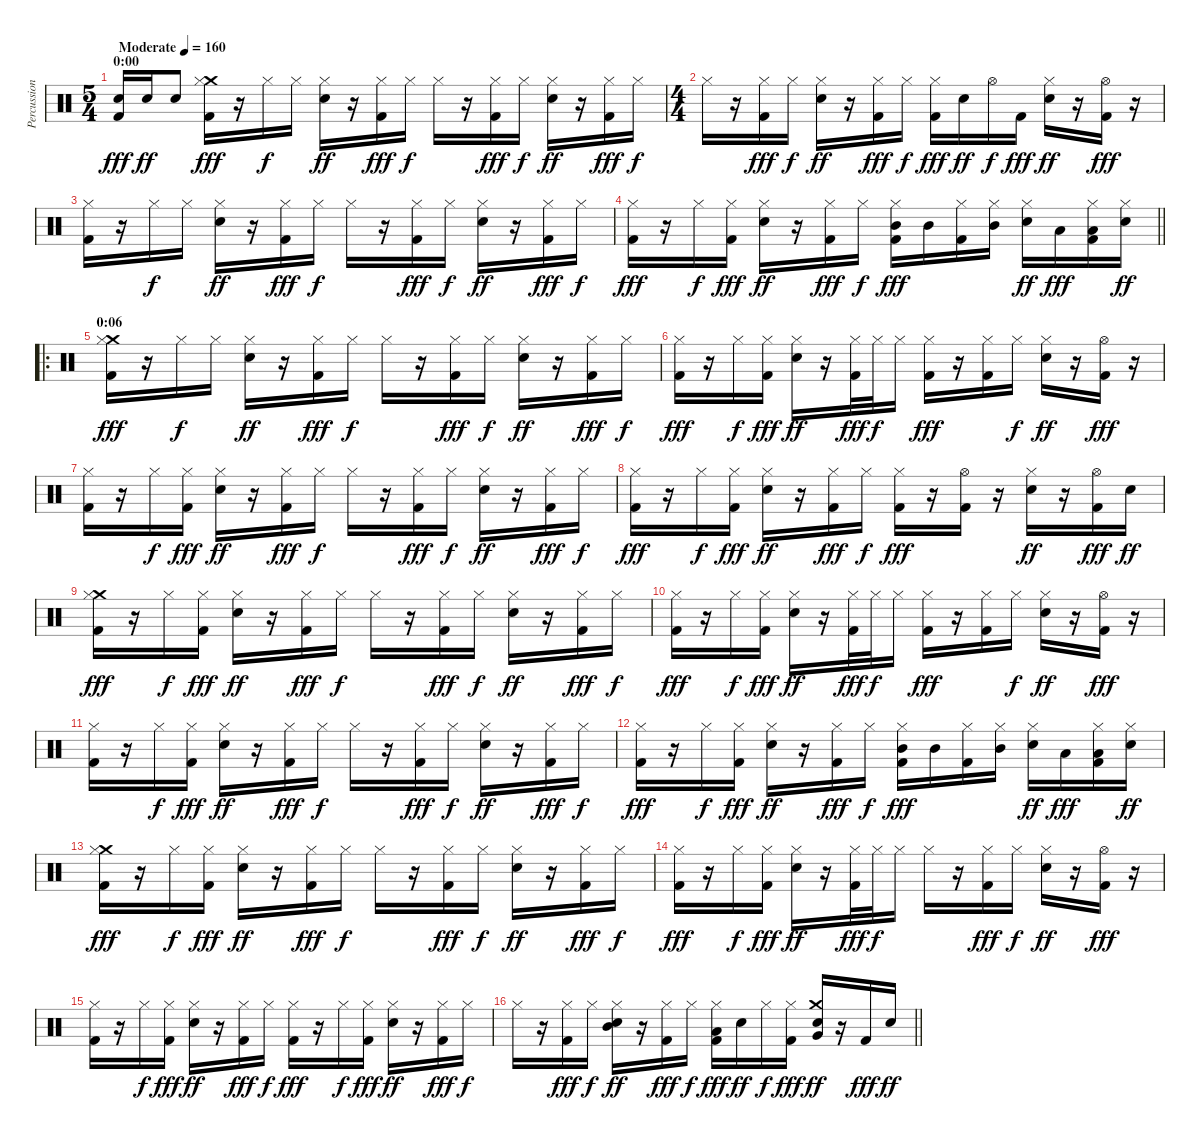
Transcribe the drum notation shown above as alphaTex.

\track ("Percussion" "Percussion") {instrument percussion}
\staff {score}
\articulation defaults
\ts (5 4)
\section ("" "0:00")
\tempo (160 "Moderate")
\clef neutral
\ks c
("Electric Snare (hit)" "Kick (hit) 2").16{dy fff} "Electric Snare (hit)".16{dy ff} "Electric Snare (hit)".8 ("Crash medium (hit)" "Hi-Hat (closed)" "Kick (hit) 2").16{dy fff} r.16 "Hi-Hat (closed)".16{dy f} "Hi-Hat (closed)".16 ("Hi-Hat (closed)" "Electric Snare (hit)").16{dy ff} r.16 ("Hi-Hat (closed)" "Kick (hit) 2").16{dy fff} "Hi-Hat (closed)".16{dy f} "Hi-Hat (closed)".16 r.16 ("Hi-Hat (closed)" "Kick (hit) 2").16{dy fff} "Hi-Hat (closed)".16{dy f} ("Hi-Hat (closed)" "Electric Snare (hit)").16{dy ff} r.16 ("Hi-Hat (closed)" "Kick (hit) 2").16{dy fff} "Hi-Hat (closed)".16{dy f} |
\ts (4 4)
"Hi-Hat (closed)".16 r.16 ("Hi-Hat (closed)" "Kick (hit) 2").16{dy fff} "Hi-Hat (closed)".16{dy f} ("Hi-Hat (closed)" "Electric Snare (hit)").16{dy ff} r.16 ("Hi-Hat (closed)" "Kick (hit) 2").16{dy fff} "Hi-Hat (closed)".16{dy f} ("Hi-Hat (closed)" "Kick (hit) 2").16{dy fff} "Electric Snare (hit)".16{dy ff} "Hi-Hat (open)".16{dy f} "Kick (hit) 2".16{dy fff} ("Hi-Hat (closed)" "Electric Snare (hit)").16{dy ff} r.16 ("Hi-Hat (open)" "Kick (hit) 2").16{dy fff} r.16 |
("Hi-Hat (closed)" "Kick (hit) 2").16 r.16 "Hi-Hat (closed)".16{dy f} "Hi-Hat (closed)".16 ("Hi-Hat (closed)" "Electric Snare (hit)").16{dy ff} r.16 ("Hi-Hat (closed)" "Kick (hit) 2").16{dy fff} "Hi-Hat (closed)".16{dy f} "Hi-Hat (closed)".16 r.16 ("Hi-Hat (closed)" "Kick (hit) 2").16{dy fff} "Hi-Hat (closed)".16{dy f} ("Hi-Hat (closed)" "Electric Snare (hit)").16{dy ff} r.16 ("Hi-Hat (closed)" "Kick (hit) 2").16{dy fff} "Hi-Hat (closed)".16{dy f} |
\barLineRight lightlight
("Hi-Hat (closed)" "Kick (hit) 2").16{dy fff} r.16 "Hi-Hat (closed)".16{dy f} ("Hi-Hat (closed)" "Kick (hit) 2").16{dy fff} ("Hi-Hat (closed)" "Electric Snare (hit)").16{dy ff} r.16 ("Hi-Hat (closed)" "Kick (hit) 2").16{dy fff} "Hi-Hat (closed)".16{dy f} ("Mid Tom (hit)" "Hi-Hat (closed)" "Kick (hit) 2").16{dy fff} "Mid Tom (hit)".16 ("Hi-Hat (closed)" "Kick (hit) 2").16 ("Mid Tom (hit)" "Hi-Hat (closed)").16 ("Hi-Hat (closed)" "Electric Snare (hit)").16{dy ff} "Low Tom (hit)".16{dy fff} ("Low Tom (hit)" "Hi-Hat (closed)" "Kick (hit) 2").16 ("Hi-Hat (closed)" "Electric Snare (hit)").16{dy ff} |
\ro
\section ("" "0:06")
("Crash medium (hit)" "Hi-Hat (closed)" "Kick (hit) 2").16{dy fff} r.16 "Hi-Hat (closed)".16{dy f} "Hi-Hat (closed)".16 ("Hi-Hat (closed)" "Electric Snare (hit)").16{dy ff} r.16 ("Hi-Hat (closed)" "Kick (hit) 2").16{dy fff} "Hi-Hat (closed)".16{dy f} "Hi-Hat (closed)".16 r.16 ("Hi-Hat (closed)" "Kick (hit) 2").16{dy fff} "Hi-Hat (closed)".16{dy f} ("Hi-Hat (closed)" "Electric Snare (hit)").16{dy ff} r.16 ("Hi-Hat (closed)" "Kick (hit) 2").16{dy fff} "Hi-Hat (closed)".16{dy f} |
("Hi-Hat (closed)" "Kick (hit) 2").16{dy fff} r.16 "Hi-Hat (closed)".16{dy f} ("Hi-Hat (closed)" "Kick (hit) 2").16{dy fff} ("Hi-Hat (closed)" "Electric Snare (hit)").16{dy ff} r.16 ("Hi-Hat (closed)" "Kick (hit) 2").32{dy fff} "Hi-Hat (closed)".32{dy f} "Hi-Hat (closed)".16 ("Hi-Hat (closed)" "Kick (hit) 2").16{dy fff} r.16 ("Hi-Hat (closed)" "Kick (hit) 2").16 "Hi-Hat (closed)".16{dy f} ("Hi-Hat (closed)" "Electric Snare (hit)").16{dy ff} r.16 ("Hi-Hat (open)" "Kick (hit) 2").16{dy fff} r.16 |
("Hi-Hat (closed)" "Kick (hit) 2").16 r.16 "Hi-Hat (closed)".16{dy f} ("Hi-Hat (closed)" "Kick (hit) 2").16{dy fff} ("Hi-Hat (closed)" "Electric Snare (hit)").16{dy ff} r.16 ("Hi-Hat (closed)" "Kick (hit) 2").16{dy fff} "Hi-Hat (closed)".16{dy f} "Hi-Hat (closed)".16 r.16 ("Hi-Hat (closed)" "Kick (hit) 2").16{dy fff} "Hi-Hat (closed)".16{dy f} ("Hi-Hat (closed)" "Electric Snare (hit)").16{dy ff} r.16 ("Hi-Hat (closed)" "Kick (hit) 2").16{dy fff} "Hi-Hat (closed)".16{dy f} |
("Hi-Hat (closed)" "Kick (hit) 2").16{dy fff} r.16 "Hi-Hat (closed)".16{dy f} ("Hi-Hat (closed)" "Kick (hit) 2").16{dy fff} ("Hi-Hat (closed)" "Electric Snare (hit)").16{dy ff} r.16 ("Hi-Hat (closed)" "Kick (hit) 2").16{dy fff} "Hi-Hat (closed)".16{dy f} ("Hi-Hat (closed)" "Kick (hit) 2").16{dy fff} r.16 ("Hi-Hat (open)" "Kick (hit) 2").16 r.16 ("Hi-Hat (closed)" "Electric Snare (hit)").16{dy ff} r.16 ("Hi-Hat (open)" "Kick (hit) 2").16{dy fff} "Electric Snare (hit)".16{dy ff} |
("Crash medium (hit)" "Hi-Hat (closed)" "Kick (hit) 2").16{dy fff} r.16 "Hi-Hat (closed)".16{dy f} ("Hi-Hat (closed)" "Kick (hit) 2").16{dy fff} ("Hi-Hat (closed)" "Electric Snare (hit)").16{dy ff} r.16 ("Hi-Hat (closed)" "Kick (hit) 2").16{dy fff} "Hi-Hat (closed)".16{dy f} "Hi-Hat (closed)".16 r.16 ("Hi-Hat (closed)" "Kick (hit) 2").16{dy fff} "Hi-Hat (closed)".16{dy f} ("Hi-Hat (closed)" "Electric Snare (hit)").16{dy ff} r.16 ("Hi-Hat (closed)" "Kick (hit) 2").16{dy fff} "Hi-Hat (closed)".16{dy f} |
("Hi-Hat (closed)" "Kick (hit) 2").16{dy fff} r.16 "Hi-Hat (closed)".16{dy f} ("Hi-Hat (closed)" "Kick (hit) 2").16{dy fff} ("Hi-Hat (closed)" "Electric Snare (hit)").16{dy ff} r.16 ("Hi-Hat (closed)" "Kick (hit) 2").32{dy fff} "Hi-Hat (closed)".32{dy f} "Hi-Hat (closed)".16 ("Hi-Hat (closed)" "Kick (hit) 2").16{dy fff} r.16 ("Hi-Hat (closed)" "Kick (hit) 2").16 "Hi-Hat (closed)".16{dy f} ("Hi-Hat (closed)" "Electric Snare (hit)").16{dy ff} r.16 ("Hi-Hat (open)" "Kick (hit) 2").16{dy fff} r.16 |
("Hi-Hat (closed)" "Kick (hit) 2").16 r.16 "Hi-Hat (closed)".16{dy f} ("Hi-Hat (closed)" "Kick (hit) 2").16{dy fff} ("Hi-Hat (closed)" "Electric Snare (hit)").16{dy ff} r.16 ("Hi-Hat (closed)" "Kick (hit) 2").16{dy fff} "Hi-Hat (closed)".16{dy f} "Hi-Hat (closed)".16 r.16 ("Hi-Hat (closed)" "Kick (hit) 2").16{dy fff} "Hi-Hat (closed)".16{dy f} ("Hi-Hat (closed)" "Electric Snare (hit)").16{dy ff} r.16 ("Hi-Hat (closed)" "Kick (hit) 2").16{dy fff} "Hi-Hat (closed)".16{dy f} |
("Hi-Hat (closed)" "Kick (hit) 2").16{dy fff} r.16 "Hi-Hat (closed)".16{dy f} ("Hi-Hat (closed)" "Kick (hit) 2").16{dy fff} ("Hi-Hat (closed)" "Electric Snare (hit)").16{dy ff} r.16 ("Hi-Hat (closed)" "Kick (hit) 2").16{dy fff} "Hi-Hat (closed)".16{dy f} ("Mid Tom (hit)" "Hi-Hat (closed)" "Kick (hit) 2").16{dy fff} "Mid Tom (hit)".16 ("Hi-Hat (closed)" "Kick (hit) 2").16 ("Mid Tom (hit)" "Hi-Hat (closed)").16 ("Hi-Hat (closed)" "Electric Snare (hit)").16{dy ff} "Low Tom (hit)".16{dy fff} ("Low Tom (hit)" "Hi-Hat (closed)" "Kick (hit) 2").16 ("Hi-Hat (closed)" "Electric Snare (hit)").16{dy ff} |
("Crash medium (hit)" "Hi-Hat (closed)" "Kick (hit) 2").16{dy fff} r.16 "Hi-Hat (closed)".16{dy f} ("Hi-Hat (closed)" "Kick (hit) 2").16{dy fff} ("Hi-Hat (closed)" "Electric Snare (hit)").16{dy ff} r.16 ("Hi-Hat (closed)" "Kick (hit) 2").16{dy fff} "Hi-Hat (closed)".16{dy f} "Hi-Hat (closed)".16 r.16 ("Hi-Hat (closed)" "Kick (hit) 2").16{dy fff} "Hi-Hat (closed)".16{dy f} ("Hi-Hat (closed)" "Electric Snare (hit)").16{dy ff} r.16 ("Hi-Hat (closed)" "Kick (hit) 2").16{dy fff} "Hi-Hat (closed)".16{dy f} |
("Hi-Hat (closed)" "Kick (hit) 2").16{dy fff} r.16 "Hi-Hat (closed)".16{dy f} ("Hi-Hat (closed)" "Kick (hit) 2").16{dy fff} ("Hi-Hat (closed)" "Electric Snare (hit)").16{dy ff} r.16 ("Hi-Hat (closed)" "Kick (hit) 2").32{dy fff} "Hi-Hat (closed)".32{dy f} "Hi-Hat (closed)".16 "Hi-Hat (closed)".16 r.16 ("Hi-Hat (closed)" "Kick (hit) 2").16{dy fff} "Hi-Hat (closed)".16{dy f} ("Hi-Hat (closed)" "Electric Snare (hit)").16{dy ff} r.16 ("Hi-Hat (open)" "Kick (hit) 2").16{dy fff} r.16 |
("Hi-Hat (closed)" "Kick (hit) 2").16 r.16 "Hi-Hat (closed)".16{dy f} ("Hi-Hat (closed)" "Kick (hit) 2").16{dy fff} ("Hi-Hat (closed)" "Electric Snare (hit)").16{dy ff} r.16 ("Hi-Hat (closed)" "Kick (hit) 2").16{dy fff} "Hi-Hat (closed)".16{dy f} ("Hi-Hat (closed)" "Kick (hit) 2").16{dy fff} r.16 "Hi-Hat (closed)".16{dy f} ("Hi-Hat (closed)" "Kick (hit) 2").16{dy fff} ("Hi-Hat (closed)" "Electric Snare (hit)").16{dy ff} r.16 ("Hi-Hat (closed)" "Kick (hit) 2").16{dy fff} "Hi-Hat (closed)".16{dy f} |
\barLineRight lightlight "Hi-Hat (closed)".16
r.16 ("Hi-Hat (closed)" "Kick (hit) 2").16{dy fff} "Hi-Hat (closed)".16{dy f} ("Mid Tom (hit)" "Hi-Hat (closed)" "Electric Snare (hit)").16{dy ff} r.16 ("Hi-Hat (closed)" "Kick (hit) 2").16{dy fff} "Hi-Hat (closed)".16{dy f} ("Low Tom (hit)" "Hi-Hat (closed)" "Kick (hit) 2").16{dy fff} "Electric Snare (hit)".16{dy ff} "Hi-Hat (closed)".16{dy f} ("Hi-Hat (closed)" "Kick (hit) 2").16{dy fff} ("Very Low Tom (hit)" "Crash medium (hit)" "Electric Snare (hit)").16{dy ff} r.16 "Kick (hit) 2".16{dy fff} "Electric Snare (hit)".16{dy ff}
